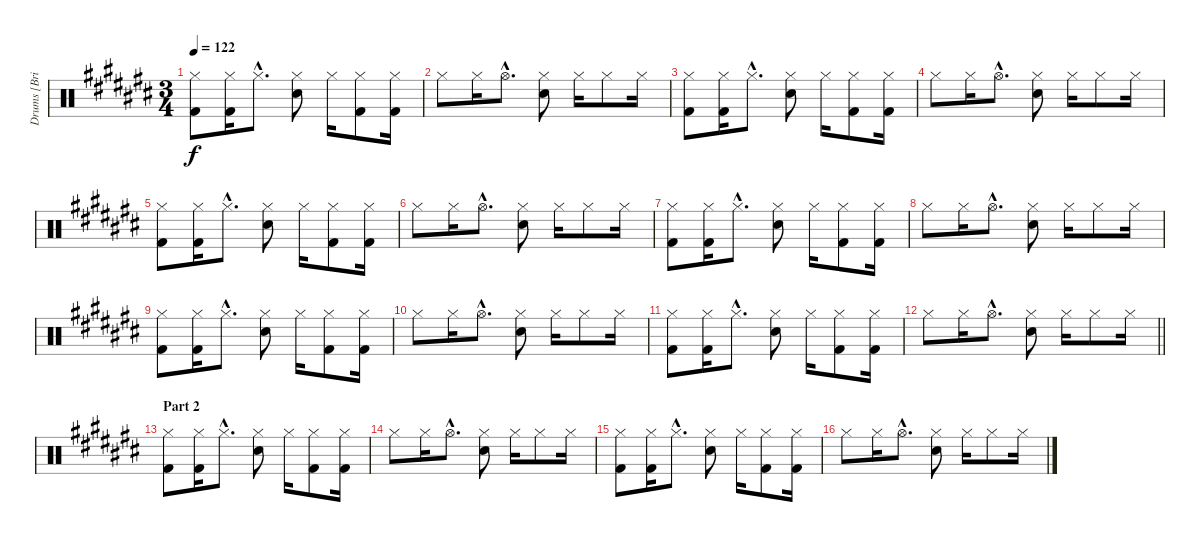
\track ("Drums [Brian \"Brain\" Mantia]" "Drums [Bri") {instrument percussion}
\staff {score}
\articulation defaults
\ts (3 4)
\tempo 122
\clef neutral
\ks c#
("Hi-Hat (closed)" "Kick (hit) 2").8{dy f} ("Hi-Hat (closed)" "Kick (hit) 2").16 "Hi-Hat (closed)"{hac}.8{d} ("Hi-Hat (closed)" "Electric Snare (hit)").8 "Hi-Hat (closed)".16 ("Hi-Hat (closed)" "Kick (hit) 2").8 ("Hi-Hat (closed)" "Kick (hit) 2").16 |
"Hi-Hat (closed)".8 "Hi-Hat (closed)".16 "Hi-Hat (open)"{hac}.8{d} ("Hi-Hat (closed)" "Electric Snare (hit)").8 "Hi-Hat (closed)".16 "Hi-Hat (closed)".8 "Hi-Hat (closed)".16 |
("Hi-Hat (closed)" "Kick (hit) 2").8 ("Hi-Hat (closed)" "Kick (hit) 2").16 "Hi-Hat (closed)"{hac}.8{d} ("Hi-Hat (closed)" "Electric Snare (hit)").8 "Hi-Hat (closed)".16 ("Hi-Hat (closed)" "Kick (hit) 2").8 ("Hi-Hat (closed)" "Kick (hit) 2").16 |
"Hi-Hat (closed)".8 "Hi-Hat (closed)".16 "Hi-Hat (open)"{hac}.8{d} ("Hi-Hat (closed)" "Electric Snare (hit)").8 "Hi-Hat (closed)".16 "Hi-Hat (closed)".8 "Hi-Hat (closed)".16 |
("Hi-Hat (closed)" "Kick (hit) 2").8 ("Hi-Hat (closed)" "Kick (hit) 2").16 "Hi-Hat (closed)"{hac}.8{d} ("Hi-Hat (closed)" "Electric Snare (hit)").8 "Hi-Hat (closed)".16 ("Hi-Hat (closed)" "Kick (hit) 2").8 ("Hi-Hat (closed)" "Kick (hit) 2").16 |
"Hi-Hat (closed)".8 "Hi-Hat (closed)".16 "Hi-Hat (open)"{hac}.8{d} ("Hi-Hat (closed)" "Electric Snare (hit)").8 "Hi-Hat (closed)".16 "Hi-Hat (closed)".8 "Hi-Hat (closed)".16 |
("Hi-Hat (closed)" "Kick (hit) 2").8 ("Hi-Hat (closed)" "Kick (hit) 2").16 "Hi-Hat (closed)"{hac}.8{d} ("Hi-Hat (closed)" "Electric Snare (hit)").8 "Hi-Hat (closed)".16 ("Hi-Hat (closed)" "Kick (hit) 2").8 ("Hi-Hat (closed)" "Kick (hit) 2").16 |
"Hi-Hat (closed)".8 "Hi-Hat (closed)".16 "Hi-Hat (open)"{hac}.8{d} ("Hi-Hat (closed)" "Electric Snare (hit)").8 "Hi-Hat (closed)".16 "Hi-Hat (closed)".8 "Hi-Hat (closed)".16 |
("Hi-Hat (closed)" "Kick (hit) 2").8 ("Hi-Hat (closed)" "Kick (hit) 2").16 "Hi-Hat (closed)"{hac}.8{d} ("Hi-Hat (closed)" "Electric Snare (hit)").8 "Hi-Hat (closed)".16 ("Hi-Hat (closed)" "Kick (hit) 2").8 ("Hi-Hat (closed)" "Kick (hit) 2").16 |
"Hi-Hat (closed)".8 "Hi-Hat (closed)".16 "Hi-Hat (open)"{hac}.8{d} ("Hi-Hat (closed)" "Electric Snare (hit)").8 "Hi-Hat (closed)".16 "Hi-Hat (closed)".8 "Hi-Hat (closed)".16 |
("Hi-Hat (closed)" "Kick (hit) 2").8 ("Hi-Hat (closed)" "Kick (hit) 2").16 "Hi-Hat (closed)"{hac}.8{d} ("Hi-Hat (closed)" "Electric Snare (hit)").8 "Hi-Hat (closed)".16 ("Hi-Hat (closed)" "Kick (hit) 2").8 ("Hi-Hat (closed)" "Kick (hit) 2").16 |
\barLineRight lightlight "Hi-Hat (closed)".8 "Hi-Hat (closed)".16 "Hi-Hat (open)"{hac}.8{d}
("Hi-Hat (closed)" "Electric Snare (hit)").8 "Hi-Hat (closed)".16 "Hi-Hat (closed)".8 "Hi-Hat (closed)".16 |
\section ("" "Part 2")
("Hi-Hat (closed)" "Kick (hit) 2").8 ("Hi-Hat (closed)" "Kick (hit) 2").16 "Hi-Hat (closed)"{hac}.8{d} ("Hi-Hat (closed)" "Electric Snare (hit)").8 "Hi-Hat (closed)".16 ("Hi-Hat (closed)" "Kick (hit) 2").8 ("Hi-Hat (closed)" "Kick (hit) 2").16 |
"Hi-Hat (closed)".8 "Hi-Hat (closed)".16 "Hi-Hat (open)"{hac}.8{d} ("Hi-Hat (closed)" "Electric Snare (hit)").8 "Hi-Hat (closed)".16 "Hi-Hat (closed)".8 "Hi-Hat (closed)".16 |
("Hi-Hat (closed)" "Kick (hit) 2").8 ("Hi-Hat (closed)" "Kick (hit) 2").16 "Hi-Hat (closed)"{hac}.8{d} ("Hi-Hat (closed)" "Electric Snare (hit)").8 "Hi-Hat (closed)".16 ("Hi-Hat (closed)" "Kick (hit) 2").8 ("Hi-Hat (closed)" "Kick (hit) 2").16 |
"Hi-Hat (closed)".8 "Hi-Hat (closed)".16 "Hi-Hat (open)"{hac}.8{d} ("Hi-Hat (closed)" "Electric Snare (hit)").8 "Hi-Hat (closed)".16 "Hi-Hat (closed)".8 "Hi-Hat (closed)".16
